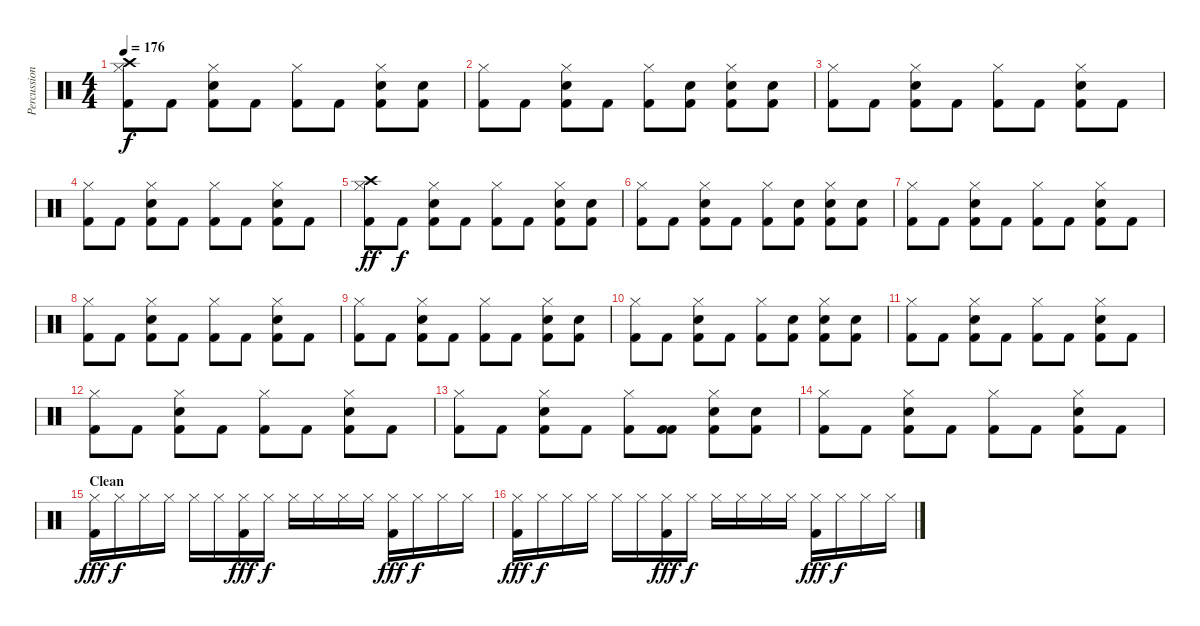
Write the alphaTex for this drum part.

\track ("Percussion" "Percussion") {instrument percussion}
\staff {score}
\articulation defaults
\ts (4 4)
\tempo 176
\clef neutral
\ks c
("Hi-Hat (closed)" "Crash high (hit)" "Kick (hit) 2").8{dy f} "Kick (hit) 2".8 ("Hi-Hat (closed)" "Snare (hit) 2" "Kick (hit) 2").8 "Kick (hit) 2".8 ("Hi-Hat (closed)" "Kick (hit) 2").8 "Kick (hit) 2".8 ("Hi-Hat (closed)" "Snare (hit) 2" "Kick (hit) 2").8 ("Snare (hit) 2" "Kick (hit) 2").8 |
("Hi-Hat (closed)" "Kick (hit) 2").8 "Kick (hit) 2".8 ("Hi-Hat (closed)" "Snare (hit) 2" "Kick (hit) 2").8 "Kick (hit) 2".8 ("Hi-Hat (closed)" "Kick (hit) 2").8 ("Snare (hit) 2" "Kick (hit) 2").8 ("Hi-Hat (closed)" "Snare (hit) 2" "Kick (hit) 2").8 ("Snare (hit) 2" "Kick (hit) 2").8 |
("Hi-Hat (closed)" "Kick (hit) 2").8 "Kick (hit) 2".8 ("Hi-Hat (closed)" "Snare (hit) 2" "Kick (hit) 2").8 "Kick (hit) 2".8 ("Hi-Hat (closed)" "Kick (hit) 2").8 "Kick (hit) 2".8 ("Hi-Hat (closed)" "Snare (hit) 2" "Kick (hit) 2").8 "Kick (hit) 2".8 |
("Hi-Hat (closed)" "Kick (hit) 2").8 "Kick (hit) 2".8 ("Hi-Hat (closed)" "Snare (hit) 2" "Kick (hit) 2").8 "Kick (hit) 2".8 ("Hi-Hat (closed)" "Kick (hit) 2").8 "Kick (hit) 2".8 ("Hi-Hat (closed)" "Snare (hit) 2" "Kick (hit) 2").8 "Kick (hit) 2".8 |
("Hi-Hat (closed)" "Crash high (hit)" "Kick (hit) 2").8{dy ff} "Kick (hit) 2".8{dy f} ("Hi-Hat (closed)" "Snare (hit) 2" "Kick (hit) 2").8 "Kick (hit) 2".8 ("Hi-Hat (closed)" "Kick (hit) 2").8 "Kick (hit) 2".8 ("Hi-Hat (closed)" "Snare (hit) 2" "Kick (hit) 2").8 ("Snare (hit) 2" "Kick (hit) 2").8 |
("Hi-Hat (closed)" "Kick (hit) 2").8 "Kick (hit) 2".8 ("Hi-Hat (closed)" "Snare (hit) 2" "Kick (hit) 2").8 "Kick (hit) 2".8 ("Hi-Hat (closed)" "Kick (hit) 2").8 ("Snare (hit) 2" "Kick (hit) 2").8 ("Hi-Hat (closed)" "Snare (hit) 2" "Kick (hit) 2").8 ("Snare (hit) 2" "Kick (hit) 2").8 |
("Hi-Hat (closed)" "Kick (hit) 2").8 "Kick (hit) 2".8 ("Hi-Hat (closed)" "Snare (hit) 2" "Kick (hit) 2").8 "Kick (hit) 2".8 ("Hi-Hat (closed)" "Kick (hit) 2").8 "Kick (hit) 2".8 ("Hi-Hat (closed)" "Snare (hit) 2" "Kick (hit) 2").8 "Kick (hit) 2".8 |
("Hi-Hat (closed)" "Kick (hit) 2").8 "Kick (hit) 2".8 ("Hi-Hat (closed)" "Snare (hit) 2" "Kick (hit) 2").8 "Kick (hit) 2".8 ("Hi-Hat (closed)" "Kick (hit) 2").8 "Kick (hit) 2".8 ("Hi-Hat (closed)" "Snare (hit) 2" "Kick (hit) 2").8 "Kick (hit) 2".8 |
("Hi-Hat (closed)" "Kick (hit) 2").8 "Kick (hit) 2".8 ("Hi-Hat (closed)" "Snare (hit) 2" "Kick (hit) 2").8 "Kick (hit) 2".8 ("Hi-Hat (closed)" "Kick (hit) 2").8 "Kick (hit) 2".8 ("Hi-Hat (closed)" "Snare (hit) 2" "Kick (hit) 2").8 ("Snare (hit) 2" "Kick (hit) 2").8 |
("Hi-Hat (closed)" "Kick (hit) 2").8 "Kick (hit) 2".8 ("Hi-Hat (closed)" "Snare (hit) 2" "Kick (hit) 2").8 "Kick (hit) 2".8 ("Hi-Hat (closed)" "Kick (hit) 2").8 ("Snare (hit) 2" "Kick (hit) 2").8 ("Hi-Hat (closed)" "Snare (hit) 2" "Kick (hit) 2").8 ("Snare (hit) 2" "Kick (hit) 2").8 |
("Hi-Hat (closed)" "Kick (hit) 2").8 "Kick (hit) 2".8 ("Hi-Hat (closed)" "Snare (hit) 2" "Kick (hit) 2").8 "Kick (hit) 2".8 ("Hi-Hat (closed)" "Kick (hit) 2").8 "Kick (hit) 2".8 ("Hi-Hat (closed)" "Snare (hit) 2" "Kick (hit) 2").8 "Kick (hit) 2".8 |
("Hi-Hat (closed)" "Kick (hit) 2").8 "Kick (hit) 2".8 ("Hi-Hat (closed)" "Snare (hit) 2" "Kick (hit) 2").8 "Kick (hit) 2".8 ("Hi-Hat (closed)" "Kick (hit) 2").8 "Kick (hit) 2".8 ("Hi-Hat (closed)" "Snare (hit) 2" "Kick (hit) 2").8 "Kick (hit) 2".8 |
("Hi-Hat (closed)" "Kick (hit) 2").8 "Kick (hit) 2".8 ("Hi-Hat (closed)" "Snare (hit) 2" "Kick (hit) 2").8 "Kick (hit) 2".8 ("Hi-Hat (closed)" "Kick (hit) 2").8 ("Kick (hit) 2" "Kick (hit) 2").8 ("Hi-Hat (closed)" "Snare (hit) 2" "Kick (hit) 2").8 ("Snare (hit) 2" "Kick (hit) 2").8 |
("Hi-Hat (closed)" "Kick (hit) 2").8 "Kick (hit) 2".8 ("Hi-Hat (closed)" "Snare (hit) 2" "Kick (hit) 2").8 "Kick (hit) 2".8 ("Hi-Hat (closed)" "Kick (hit) 2").8 "Kick (hit) 2".8 ("Hi-Hat (closed)" "Snare (hit) 2" "Kick (hit) 2").8 "Kick (hit) 2".8 |
\section ("" "Clean")
("Hi-Hat (closed)" "Kick (hit) 2").16{dy fff} "Hi-Hat (closed)".16{dy f} "Hi-Hat (closed)".16 "Hi-Hat (closed)".16 "Hi-Hat (closed)".16 "Hi-Hat (closed)".16 ("Hi-Hat (closed)" "Kick (hit) 2").16{dy fff} "Hi-Hat (closed)".16{dy f} "Hi-Hat (closed)".16 "Hi-Hat (closed)".16 "Hi-Hat (closed)".16 "Hi-Hat (closed)".16 ("Hi-Hat (closed)" "Kick (hit) 2").16{dy fff} "Hi-Hat (closed)".16{dy f} "Hi-Hat (closed)".16 "Hi-Hat (closed)".16 |
("Hi-Hat (closed)" "Kick (hit) 2").16{dy fff} "Hi-Hat (closed)".16{dy f} "Hi-Hat (closed)".16 "Hi-Hat (closed)".16 "Hi-Hat (closed)".16 "Hi-Hat (closed)".16 ("Hi-Hat (closed)" "Kick (hit) 2").16{dy fff} "Hi-Hat (closed)".16{dy f} "Hi-Hat (closed)".16 "Hi-Hat (closed)".16 "Hi-Hat (closed)".16 "Hi-Hat (closed)".16 ("Hi-Hat (closed)" "Kick (hit) 2").16{dy fff} "Hi-Hat (closed)".16{dy f} "Hi-Hat (closed)".16 "Hi-Hat (closed)".16
